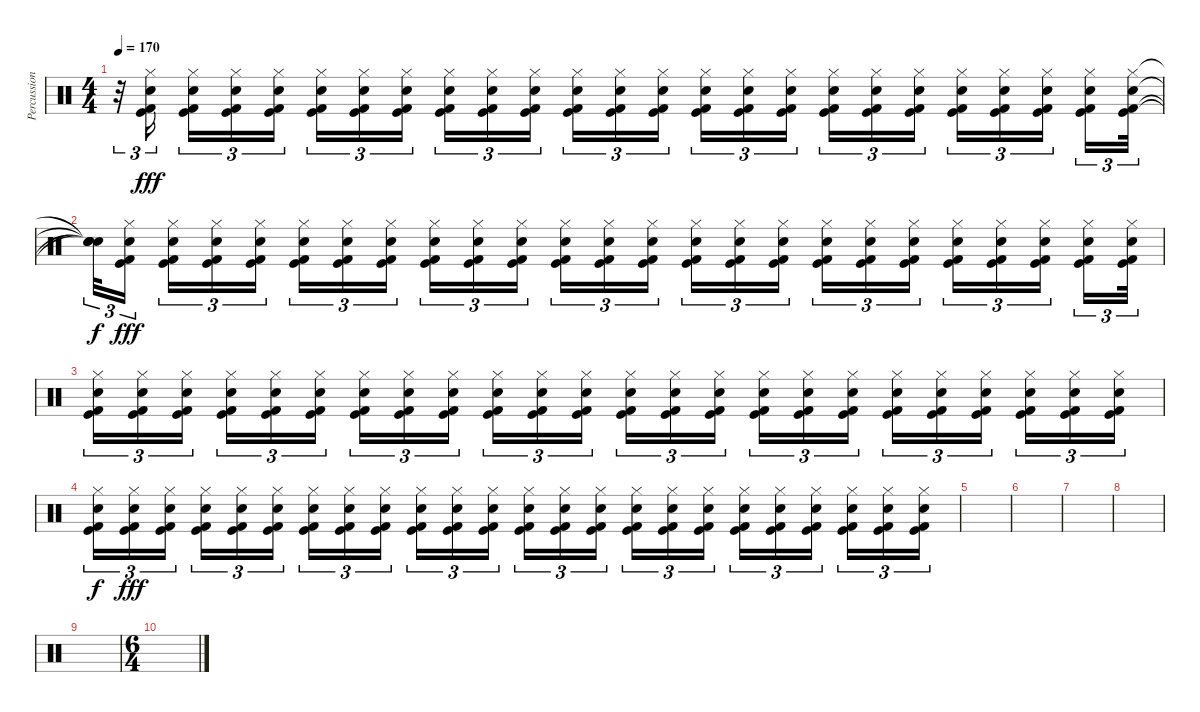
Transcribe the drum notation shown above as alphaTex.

\track ("Percussion" "Percussion") {instrument percussion}
\staff {score}
\articulation defaults
\ts (4 4)
\tempo 170
\clef neutral
\ks c
r.32{tu (3 2) dy f} ("Hi-Hat (closed)" "Snare (hit) 2" "Kick (hit) 2" "Kick (hit)").16{tu (3 2) dy fff volume 7 balance 16 beam splitsecondary} ("Hi-Hat (closed)" "Snare (hit) 2" "Kick (hit) 2" "Kick (hit)").16{tu (3 2)} ("Hi-Hat (closed)" "Snare (hit) 2" "Kick (hit) 2" "Kick (hit)").16{tu (3 2)} ("Hi-Hat (closed)" "Snare (hit) 2" "Kick (hit) 2" "Kick (hit)").16{tu (3 2) beam splitsecondary} ("Hi-Hat (closed)" "Snare (hit) 2" "Kick (hit) 2" "Kick (hit)").16{tu (3 2)} ("Hi-Hat (closed)" "Snare (hit) 2" "Kick (hit) 2" "Kick (hit)").16{tu (3 2)} ("Hi-Hat (closed)" "Snare (hit) 2" "Kick (hit) 2" "Kick (hit)").16{tu (3 2) beam splitsecondary} ("Hi-Hat (closed)" "Snare (hit) 2" "Kick (hit) 2" "Kick (hit)").16{tu (3 2)} ("Hi-Hat (closed)" "Snare (hit) 2" "Kick (hit) 2" "Kick (hit)").16{tu (3 2)} ("Hi-Hat (closed)" "Snare (hit) 2" "Kick (hit) 2" "Kick (hit)").16{tu (3 2) beam splitsecondary} ("Hi-Hat (closed)" "Snare (hit) 2" "Kick (hit) 2" "Kick (hit)").16{tu (3 2)} ("Hi-Hat (closed)" "Snare (hit) 2" "Kick (hit) 2" "Kick (hit)").16{tu (3 2)} ("Hi-Hat (closed)" "Snare (hit) 2" "Kick (hit) 2" "Kick (hit)").16{tu (3 2) beam splitsecondary} ("Hi-Hat (closed)" "Snare (hit) 2" "Kick (hit) 2" "Kick (hit)").16{tu (3 2)} ("Hi-Hat (closed)" "Snare (hit) 2" "Kick (hit) 2" "Kick (hit)").16{tu (3 2)} ("Hi-Hat (closed)" "Snare (hit) 2" "Kick (hit) 2" "Kick (hit)").16{tu (3 2) beam splitsecondary} ("Hi-Hat (closed)" "Snare (hit) 2" "Kick (hit) 2" "Kick (hit)").16{tu (3 2)} ("Hi-Hat (closed)" "Snare (hit) 2" "Kick (hit) 2" "Kick (hit)").16{tu (3 2)} ("Hi-Hat (closed)" "Snare (hit) 2" "Kick (hit) 2" "Kick (hit)").16{tu (3 2) beam splitsecondary} ("Hi-Hat (closed)" "Snare (hit) 2" "Kick (hit) 2" "Kick (hit)").16{tu (3 2)} ("Hi-Hat (closed)" "Snare (hit) 2" "Kick (hit) 2" "Kick (hit)").16{tu (3 2)} ("Hi-Hat (closed)" "Snare (hit) 2" "Kick (hit) 2" "Kick (hit)").16{tu (3 2) beam splitsecondary} ("Hi-Hat (closed)" "Snare (hit) 2" "Kick (hit) 2" "Kick (hit)").16{tu (3 2)} ("Hi-Hat (closed)" "Snare (hit) 2" "Kick (hit) 2" "Kick (hit)").32{tu (3 2)} |
("Snare (hit)"{t} "Snare (hit)"{t} "Snare (hit)"{t} "Snare (hit)"{t}).32{tu (3 2) dy f} ("Hi-Hat (closed)" "Snare (hit) 2" "Kick (hit) 2" "Kick (hit)").16{tu (3 2) dy fff beam splitsecondary} ("Hi-Hat (closed)" "Snare (hit) 2" "Kick (hit) 2" "Kick (hit)").16{tu (3 2)} ("Hi-Hat (closed)" "Snare (hit) 2" "Kick (hit) 2" "Kick (hit)").16{tu (3 2)} ("Hi-Hat (closed)" "Snare (hit) 2" "Kick (hit) 2" "Kick (hit)").16{tu (3 2) beam splitsecondary} ("Hi-Hat (closed)" "Snare (hit) 2" "Kick (hit) 2" "Kick (hit)").16{tu (3 2)} ("Hi-Hat (closed)" "Snare (hit) 2" "Kick (hit) 2" "Kick (hit)").16{tu (3 2)} ("Hi-Hat (closed)" "Snare (hit) 2" "Kick (hit) 2" "Kick (hit)").16{tu (3 2) beam splitsecondary} ("Hi-Hat (closed)" "Snare (hit) 2" "Kick (hit) 2" "Kick (hit)").16{tu (3 2)} ("Hi-Hat (closed)" "Snare (hit) 2" "Kick (hit) 2" "Kick (hit)").16{tu (3 2)} ("Hi-Hat (closed)" "Snare (hit) 2" "Kick (hit) 2" "Kick (hit)").16{tu (3 2) beam splitsecondary} ("Hi-Hat (closed)" "Snare (hit) 2" "Kick (hit) 2" "Kick (hit)").16{tu (3 2)} ("Hi-Hat (closed)" "Snare (hit) 2" "Kick (hit) 2" "Kick (hit)").16{tu (3 2)} ("Hi-Hat (closed)" "Snare (hit) 2" "Kick (hit) 2" "Kick (hit)").16{tu (3 2) beam splitsecondary} ("Hi-Hat (closed)" "Snare (hit) 2" "Kick (hit) 2" "Kick (hit)").16{tu (3 2)} ("Hi-Hat (closed)" "Snare (hit) 2" "Kick (hit) 2" "Kick (hit)").16{tu (3 2)} ("Hi-Hat (closed)" "Snare (hit) 2" "Kick (hit) 2" "Kick (hit)").16{tu (3 2) beam splitsecondary} ("Hi-Hat (closed)" "Snare (hit) 2" "Kick (hit) 2" "Kick (hit)").16{tu (3 2)} ("Hi-Hat (closed)" "Snare (hit) 2" "Kick (hit) 2" "Kick (hit)").16{tu (3 2)} ("Hi-Hat (closed)" "Snare (hit) 2" "Kick (hit) 2" "Kick (hit)").16{tu (3 2) beam splitsecondary} ("Hi-Hat (closed)" "Snare (hit) 2" "Kick (hit) 2" "Kick (hit)").16{tu (3 2)} ("Hi-Hat (closed)" "Snare (hit) 2" "Kick (hit) 2" "Kick (hit)").16{tu (3 2)} ("Hi-Hat (closed)" "Snare (hit) 2" "Kick (hit) 2" "Kick (hit)").16{tu (3 2) beam splitsecondary} ("Hi-Hat (closed)" "Snare (hit) 2" "Kick (hit) 2" "Kick (hit)").16{tu (3 2)} ("Hi-Hat (closed)" "Snare (hit) 2" "Kick (hit) 2" "Kick (hit)").32{tu (3 2)} |
("Hi-Hat (closed)" "Snare (hit) 2" "Kick (hit) 2" "Kick (hit)").16{tu (3 2) volume 0} ("Hi-Hat (closed)" "Snare (hit) 2" "Kick (hit) 2" "Kick (hit)").16{tu (3 2)} ("Hi-Hat (closed)" "Snare (hit) 2" "Kick (hit) 2" "Kick (hit)").16{tu (3 2) beam splitsecondary} ("Hi-Hat (closed)" "Snare (hit) 2" "Kick (hit) 2" "Kick (hit)").16{tu (3 2)} ("Hi-Hat (closed)" "Snare (hit) 2" "Kick (hit) 2" "Kick (hit)").16{tu (3 2)} ("Hi-Hat (closed)" "Snare (hit) 2" "Kick (hit) 2" "Kick (hit)").16{tu (3 2)} ("Hi-Hat (closed)" "Snare (hit) 2" "Kick (hit) 2" "Kick (hit)").16{tu (3 2)} ("Hi-Hat (closed)" "Snare (hit) 2" "Kick (hit) 2" "Kick (hit)").16{tu (3 2)} ("Hi-Hat (closed)" "Snare (hit) 2" "Kick (hit) 2" "Kick (hit)").16{tu (3 2) beam splitsecondary} ("Hi-Hat (closed)" "Snare (hit) 2" "Kick (hit) 2" "Kick (hit)").16{tu (3 2)} ("Hi-Hat (closed)" "Snare (hit) 2" "Kick (hit) 2" "Kick (hit)").16{tu (3 2)} ("Hi-Hat (closed)" "Snare (hit) 2" "Kick (hit) 2" "Kick (hit)").16{tu (3 2)} ("Hi-Hat (closed)" "Snare (hit) 2" "Kick (hit) 2" "Kick (hit)").16{tu (3 2)} ("Hi-Hat (closed)" "Snare (hit) 2" "Kick (hit) 2" "Kick (hit)").16{tu (3 2)} ("Hi-Hat (closed)" "Snare (hit) 2" "Kick (hit) 2" "Kick (hit)").16{tu (3 2) beam splitsecondary} ("Hi-Hat (closed)" "Snare (hit) 2" "Kick (hit) 2" "Kick (hit)").16{tu (3 2)} ("Hi-Hat (closed)" "Snare (hit) 2" "Kick (hit) 2" "Kick (hit)").16{tu (3 2)} ("Hi-Hat (closed)" "Snare (hit) 2" "Kick (hit) 2" "Kick (hit)").16{tu (3 2)} ("Hi-Hat (closed)" "Snare (hit) 2" "Kick (hit) 2" "Kick (hit)").16{tu (3 2)} ("Hi-Hat (closed)" "Snare (hit) 2" "Kick (hit) 2" "Kick (hit)").16{tu (3 2)} ("Hi-Hat (closed)" "Snare (hit) 2" "Kick (hit) 2" "Kick (hit)").16{tu (3 2) beam splitsecondary} ("Hi-Hat (closed)" "Snare (hit) 2" "Kick (hit) 2" "Kick (hit)").16{tu (3 2)} ("Hi-Hat (closed)" "Snare (hit) 2" "Kick (hit) 2" "Kick (hit)").16{tu (3 2)} ("Hi-Hat (closed)" "Snare (hit) 2" "Kick (hit) 2" "Kick (hit)").16{tu (3 2)} |
("Hi-Hat (closed)" "Snare (hit) 2" "Kick (hit) 2" "Kick (hit)").16{tu (3 2) dy f} ("Hi-Hat (closed)" "Snare (hit) 2" "Kick (hit) 2" "Kick (hit)").16{tu (3 2) dy fff} ("Hi-Hat (closed)" "Snare (hit) 2" "Kick (hit) 2" "Kick (hit)").16{tu (3 2) beam splitsecondary} ("Hi-Hat (closed)" "Snare (hit) 2" "Kick (hit) 2" "Kick (hit)").16{tu (3 2)} ("Hi-Hat (closed)" "Snare (hit) 2" "Kick (hit) 2" "Kick (hit)").16{tu (3 2)} ("Hi-Hat (closed)" "Snare (hit) 2" "Kick (hit) 2" "Kick (hit)").16{tu (3 2)} ("Hi-Hat (closed)" "Snare (hit) 2" "Kick (hit) 2" "Kick (hit)").16{tu (3 2)} ("Hi-Hat (closed)" "Snare (hit) 2" "Kick (hit) 2" "Kick (hit)").16{tu (3 2)} ("Hi-Hat (closed)" "Snare (hit) 2" "Kick (hit) 2" "Kick (hit)").16{tu (3 2) beam splitsecondary} ("Hi-Hat (closed)" "Snare (hit) 2" "Kick (hit) 2" "Kick (hit)").16{tu (3 2)} ("Hi-Hat (closed)" "Snare (hit) 2" "Kick (hit) 2" "Kick (hit)").16{tu (3 2)} ("Hi-Hat (closed)" "Snare (hit) 2" "Kick (hit) 2" "Kick (hit)").16{tu (3 2)} ("Hi-Hat (closed)" "Snare (hit) 2" "Kick (hit) 2" "Kick (hit)").16{tu (3 2)} ("Hi-Hat (closed)" "Snare (hit) 2" "Kick (hit) 2" "Kick (hit)").16{tu (3 2)} ("Hi-Hat (closed)" "Snare (hit) 2" "Kick (hit) 2" "Kick (hit)").16{tu (3 2) beam splitsecondary} ("Hi-Hat (closed)" "Snare (hit) 2" "Kick (hit) 2" "Kick (hit)").16{tu (3 2)} ("Hi-Hat (closed)" "Snare (hit) 2" "Kick (hit) 2" "Kick (hit)").16{tu (3 2)} ("Hi-Hat (closed)" "Snare (hit) 2" "Kick (hit) 2" "Kick (hit)").16{tu (3 2)} ("Hi-Hat (closed)" "Snare (hit) 2" "Kick (hit) 2" "Kick (hit)").16{tu (3 2)} ("Hi-Hat (closed)" "Snare (hit) 2" "Kick (hit) 2" "Kick (hit)").16{tu (3 2)} ("Hi-Hat (closed)" "Snare (hit) 2" "Kick (hit) 2" "Kick (hit)").16{tu (3 2) beam splitsecondary} ("Hi-Hat (closed)" "Snare (hit) 2" "Kick (hit) 2" "Kick (hit)").16{tu (3 2)} ("Hi-Hat (closed)" "Snare (hit) 2" "Kick (hit) 2" "Kick (hit)").16{tu (3 2)} ("Hi-Hat (closed)" "Snare (hit) 2" "Kick (hit) 2" "Kick (hit)").16{tu (3 2)} |
|
|
|
|
|
\ts (6 4)
